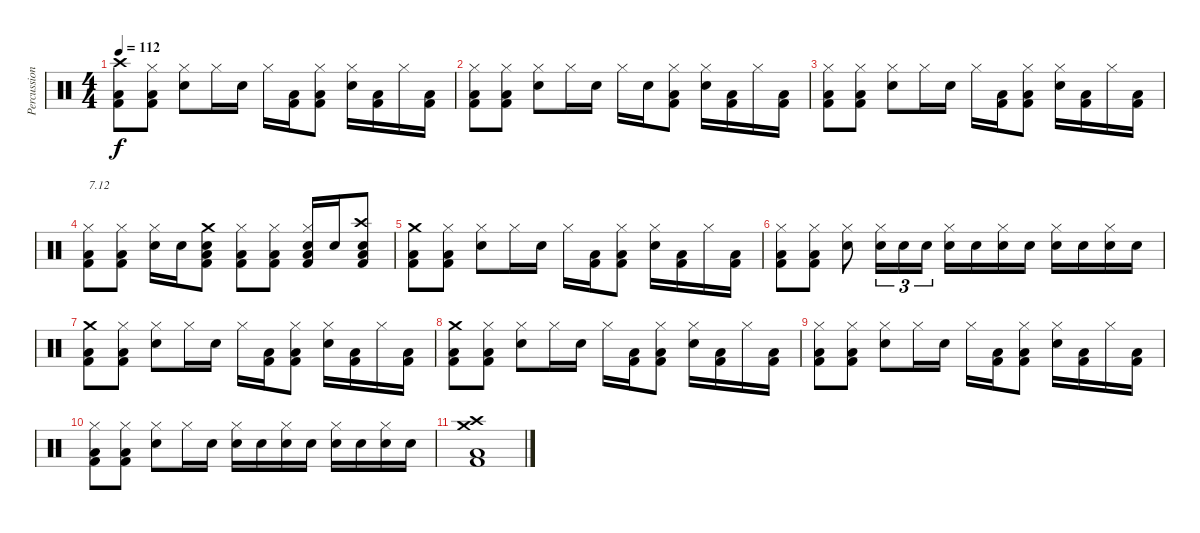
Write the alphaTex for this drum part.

\track ("Percussions" "Percussion") {instrument percussion}
\staff {score}
\articulation defaults
\ts (4 4)
\tempo 112
\clef neutral
\ks c
("Kick (hit) 2" "Low Floor Tom (hit)" "Crash high (hit)").8{dy f} ("Kick (hit) 2" "Low Floor Tom (hit)" "Hi-Hat (closed)").8 ("Snare (hit) 2" "Hi-Hat (closed)").8 "Hi-Hat (closed)".16 "Snare (hit) 2".16 "Hi-Hat (closed)".16 ("Kick (hit) 2" "Low Floor Tom (hit)").16 ("Kick (hit) 2" "Low Floor Tom (hit)" "Hi-Hat (closed)").8 ("Snare (hit) 2" "Hi-Hat (closed)").16 ("Kick (hit) 2" "Low Floor Tom (hit)").16 "Hi-Hat (closed)".16 ("Kick (hit) 2" "Low Floor Tom (hit)").16 |
("Kick (hit) 2" "Low Floor Tom (hit)" "Hi-Hat (closed)").8 ("Kick (hit) 2" "Low Floor Tom (hit)" "Hi-Hat (closed)").8 ("Snare (hit) 2" "Hi-Hat (closed)").8 "Hi-Hat (closed)".16 "Snare (hit) 2".16 "Hi-Hat (closed)".16 "Snare (hit) 2".16 ("Kick (hit) 2" "Low Floor Tom (hit)" "Hi-Hat (closed)").8 ("Snare (hit) 2" "Hi-Hat (closed)").16 ("Kick (hit) 2" "Low Floor Tom (hit)").16 "Hi-Hat (closed)".16 ("Kick (hit) 2" "Low Floor Tom (hit)").16 |
("Kick (hit) 2" "Low Floor Tom (hit)" "Hi-Hat (closed)").8 ("Kick (hit) 2" "Low Floor Tom (hit)" "Hi-Hat (closed)").8 ("Snare (hit) 2" "Hi-Hat (closed)").8 "Hi-Hat (closed)".16 "Snare (hit) 2".16 "Hi-Hat (closed)".16 ("Kick (hit) 2" "Low Floor Tom (hit)").16 ("Kick (hit) 2" "Low Floor Tom (hit)" "Hi-Hat (closed)").8 ("Snare (hit) 2" "Hi-Hat (closed)").16 ("Kick (hit) 2" "Low Floor Tom (hit)").16 "Hi-Hat (closed)".16 ("Kick (hit) 2" "Low Floor Tom (hit)").16 |
("Kick (hit) 2" "Low Floor Tom (hit)" "Hi-Hat (closed)").8{txt "7.12"} ("Kick (hit) 2" "Low Floor Tom (hit)" "Hi-Hat (closed)").8 ("Snare (hit) 2" "Hi-Hat (closed)").16 "Snare (hit) 2".16 ("Kick (hit) 2" "Low Floor Tom (hit)" "Snare (hit) 2" "Crash medium (hit)").8 ("Kick (hit) 2" "Low Floor Tom (hit)" "Hi-Hat (closed)").8 ("Kick (hit) 2" "Low Floor Tom (hit)" "Hi-Hat (closed)").8 ("Kick (hit) 2" "Low Floor Tom (hit)" "Snare (hit) 2" "Hi-Hat (closed)").16 "Snare (hit) 2".16 ("Kick (hit) 2" "Low Floor Tom (hit)" "Snare (hit) 2" "Crash high (hit)").8 |
("Kick (hit) 2" "Low Floor Tom (hit)" "Crash medium (hit)").8 ("Kick (hit) 2" "Low Floor Tom (hit)" "Hi-Hat (closed)").8 ("Snare (hit) 2" "Hi-Hat (closed)").8 "Hi-Hat (closed)".16 "Snare (hit) 2".16 "Hi-Hat (closed)".16 ("Kick (hit) 2" "Low Floor Tom (hit)").16 ("Kick (hit) 2" "Low Floor Tom (hit)" "Hi-Hat (closed)").8 ("Snare (hit) 2" "Hi-Hat (closed)").16 ("Kick (hit) 2" "Low Floor Tom (hit)").16 "Hi-Hat (closed)".16 ("Kick (hit) 2" "Low Floor Tom (hit)").16 |
("Kick (hit) 2" "Low Floor Tom (hit)" "Hi-Hat (closed)").8 ("Kick (hit) 2" "Low Floor Tom (hit)" "Hi-Hat (closed)").8 ("Snare (hit) 2" "Hi-Hat (closed)").8 ("Snare (hit) 2" "Hi-Hat (closed)").16{tu (3 2)} "Snare (hit) 2".16{tu (3 2)} "Snare (hit) 2".16{tu (3 2)} ("Snare (hit) 2" "Hi-Hat (closed)").16 "Snare (hit) 2".16 ("Snare (hit) 2" "Hi-Hat (closed)").16 "Snare (hit) 2".16 ("Snare (hit) 2" "Hi-Hat (closed)").16 "Snare (hit) 2".16 ("Snare (hit) 2" "Hi-Hat (closed)").16 "Snare (hit) 2".16 |
("Kick (hit) 2" "Low Floor Tom (hit)" "Crash medium (hit)").8 ("Kick (hit) 2" "Low Floor Tom (hit)" "Hi-Hat (closed)").8 ("Snare (hit) 2" "Hi-Hat (closed)").8 "Hi-Hat (closed)".16 "Snare (hit) 2".16 "Hi-Hat (closed)".16 ("Kick (hit) 2" "Low Floor Tom (hit)").16 ("Kick (hit) 2" "Low Floor Tom (hit)" "Hi-Hat (closed)").8 ("Snare (hit) 2" "Hi-Hat (closed)").16 ("Kick (hit) 2" "Low Floor Tom (hit)").16 "Hi-Hat (closed)".16 ("Kick (hit) 2" "Low Floor Tom (hit)").16 |
("Kick (hit) 2" "Low Floor Tom (hit)" "Crash medium (hit)").8 ("Kick (hit) 2" "Low Floor Tom (hit)" "Hi-Hat (closed)").8 ("Snare (hit) 2" "Hi-Hat (closed)").8 "Hi-Hat (closed)".16 "Snare (hit) 2".16 "Hi-Hat (closed)".16 ("Kick (hit) 2" "Low Floor Tom (hit)").16 ("Kick (hit) 2" "Low Floor Tom (hit)" "Hi-Hat (closed)").8 ("Snare (hit) 2" "Hi-Hat (closed)").16 ("Kick (hit) 2" "Low Floor Tom (hit)").16 "Hi-Hat (closed)".16 ("Kick (hit) 2" "Low Floor Tom (hit)").16 |
("Kick (hit) 2" "Low Floor Tom (hit)" "Hi-Hat (closed)").8 ("Kick (hit) 2" "Low Floor Tom (hit)" "Hi-Hat (closed)").8 ("Snare (hit) 2" "Hi-Hat (closed)").8 "Hi-Hat (closed)".16 "Snare (hit) 2".16 "Hi-Hat (closed)".16 ("Kick (hit) 2" "Low Floor Tom (hit)").16 ("Kick (hit) 2" "Low Floor Tom (hit)" "Hi-Hat (closed)").8 ("Snare (hit) 2" "Hi-Hat (closed)").16 ("Kick (hit) 2" "Low Floor Tom (hit)").16 "Hi-Hat (closed)".16 ("Kick (hit) 2" "Low Floor Tom (hit)").16 |
("Kick (hit) 2" "Low Floor Tom (hit)" "Hi-Hat (closed)").8 ("Kick (hit) 2" "Low Floor Tom (hit)" "Hi-Hat (closed)").8 ("Snare (hit) 2" "Hi-Hat (closed)").8 "Hi-Hat (closed)".16 "Snare (hit) 2".16 ("Snare (hit) 2" "Hi-Hat (closed)").16 "Snare (hit) 2".16 ("Snare (hit) 2" "Hi-Hat (closed)").16 "Snare (hit) 2".16 ("Snare (hit) 2" "Hi-Hat (closed)").16 "Snare (hit) 2".16 ("Snare (hit) 2" "Hi-Hat (closed)").16 "Snare (hit) 2".16 |
("Kick (hit) 2" "Low Floor Tom (hit)" "Crash medium (hit)" "Crash high (hit)").1
